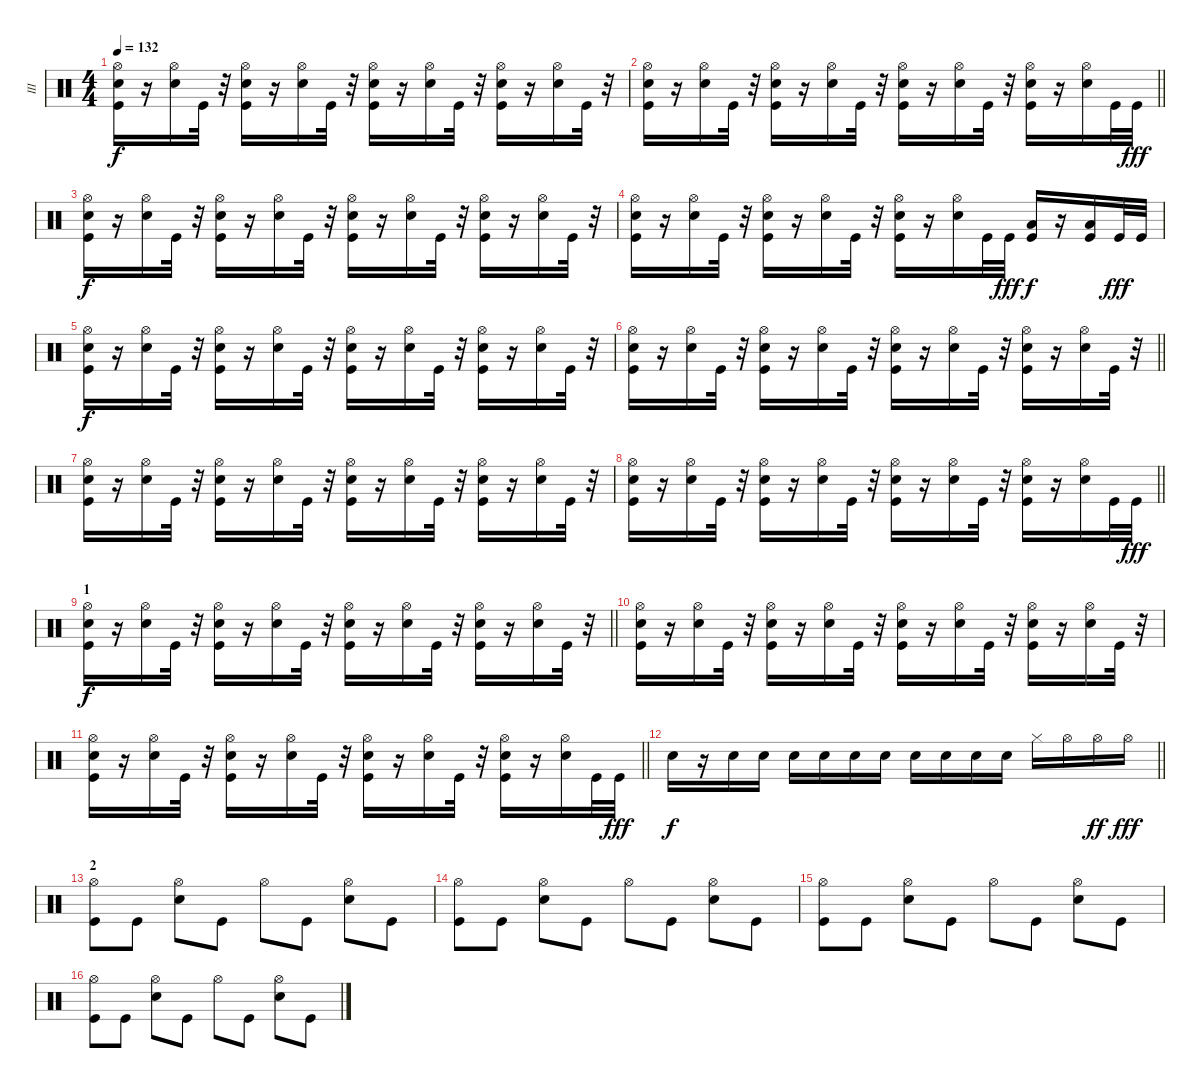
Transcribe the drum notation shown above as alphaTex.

\track ("III" "III") {instrument percussion}
\staff {score}
\articulation defaults
\ts (4 4)
\tempo 132
\clef neutral
\ks c
("Hi-Hat (open)" "Kick (hit)" "Snare (hit) 2").16{dy f} r.16 ("Hi-Hat (open)" "Snare (hit) 2").16 "Kick (hit)".32 r.32 ("Hi-Hat (open)" "Kick (hit)" "Snare (hit) 2").16 r.16 ("Hi-Hat (open)" "Snare (hit) 2").16 "Kick (hit)".32 r.32 ("Hi-Hat (open)" "Kick (hit)" "Snare (hit) 2").16 r.16 ("Hi-Hat (open)" "Snare (hit) 2").16 "Kick (hit)".32 r.32 ("Hi-Hat (open)" "Kick (hit)" "Snare (hit) 2").16 r.16 ("Hi-Hat (open)" "Snare (hit) 2").16 "Kick (hit)".32 r.32 |
\barLineRight lightlight
("Hi-Hat (open)" "Kick (hit)" "Snare (hit) 2").16 r.16 ("Hi-Hat (open)" "Snare (hit) 2").16 "Kick (hit)".32 r.32 ("Hi-Hat (open)" "Kick (hit)" "Snare (hit) 2").16 r.16 ("Hi-Hat (open)" "Snare (hit) 2").16 "Kick (hit)".32 r.32 ("Hi-Hat (open)" "Kick (hit)" "Snare (hit) 2").16 r.16 ("Hi-Hat (open)" "Snare (hit) 2").16 "Kick (hit)".32 r.32 ("Hi-Hat (open)" "Kick (hit)" "Snare (hit) 2").16 r.16 ("Hi-Hat (open)" "Snare (hit) 2").16 "Kick (hit)".32 "Kick (hit)".32{dy fff} |
("Hi-Hat (open)" "Kick (hit)" "Snare (hit) 2").16{dy f} r.16 ("Hi-Hat (open)" "Snare (hit) 2").16 "Kick (hit)".32 r.32 ("Hi-Hat (open)" "Kick (hit)" "Snare (hit) 2").16 r.16 ("Hi-Hat (open)" "Snare (hit) 2").16 "Kick (hit)".32 r.32 ("Hi-Hat (open)" "Kick (hit)" "Snare (hit) 2").16 r.16 ("Hi-Hat (open)" "Snare (hit) 2").16 "Kick (hit)".32 r.32 ("Hi-Hat (open)" "Kick (hit)" "Snare (hit) 2").16 r.16 ("Hi-Hat (open)" "Snare (hit) 2").16 "Kick (hit)".32 r.32 |
("Hi-Hat (open)" "Kick (hit)" "Snare (hit) 2").16 r.16 ("Hi-Hat (open)" "Snare (hit) 2").16 "Kick (hit)".32 r.32 ("Hi-Hat (open)" "Kick (hit)" "Snare (hit) 2").16 r.16 ("Hi-Hat (open)" "Snare (hit) 2").16 "Kick (hit)".32 r.32 ("Hi-Hat (open)" "Kick (hit)" "Snare (hit) 2").16 r.16 ("Hi-Hat (open)" "Snare (hit) 2").16 "Kick (hit)".32 "Kick (hit)".32{dy fff} ("Kick (hit)" "Low Tom (hit)").16{dy f} r.16 ("Kick (hit)" "Low Tom (hit)").16 "Kick (hit)".32{dy fff} "Kick (hit)".32 |
("Hi-Hat (open)" "Kick (hit)" "Snare (hit) 2").16{dy f} r.16 ("Hi-Hat (open)" "Snare (hit) 2").16 "Kick (hit)".32 r.32 ("Hi-Hat (open)" "Kick (hit)" "Snare (hit) 2").16 r.16 ("Hi-Hat (open)" "Snare (hit) 2").16 "Kick (hit)".32 r.32 ("Hi-Hat (open)" "Kick (hit)" "Snare (hit) 2").16 r.16 ("Hi-Hat (open)" "Snare (hit) 2").16 "Kick (hit)".32 r.32 ("Hi-Hat (open)" "Kick (hit)" "Snare (hit) 2").16 r.16 ("Hi-Hat (open)" "Snare (hit) 2").16 "Kick (hit)".32 r.32 |
\barLineRight lightlight
("Hi-Hat (open)" "Kick (hit)" "Snare (hit) 2").16 r.16 ("Hi-Hat (open)" "Snare (hit) 2").16 "Kick (hit)".32 r.32 ("Hi-Hat (open)" "Kick (hit)" "Snare (hit) 2").16 r.16 ("Hi-Hat (open)" "Snare (hit) 2").16 "Kick (hit)".32 r.32 ("Hi-Hat (open)" "Kick (hit)" "Snare (hit) 2").16 r.16 ("Hi-Hat (open)" "Snare (hit) 2").16 "Kick (hit)".32 r.32 ("Hi-Hat (open)" "Kick (hit)" "Snare (hit) 2").16 r.16 ("Hi-Hat (open)" "Snare (hit) 2").16 "Kick (hit)".32 r.32 |
("Hi-Hat (open)" "Kick (hit)" "Snare (hit) 2").16 r.16 ("Hi-Hat (open)" "Snare (hit) 2").16 "Kick (hit)".32 r.32 ("Hi-Hat (open)" "Kick (hit)" "Snare (hit) 2").16 r.16 ("Hi-Hat (open)" "Snare (hit) 2").16 "Kick (hit)".32 r.32 ("Hi-Hat (open)" "Kick (hit)" "Snare (hit) 2").16 r.16 ("Hi-Hat (open)" "Snare (hit) 2").16 "Kick (hit)".32 r.32 ("Hi-Hat (open)" "Kick (hit)" "Snare (hit) 2").16 r.16 ("Hi-Hat (open)" "Snare (hit) 2").16 "Kick (hit)".32 r.32 |
\barLineRight lightlight
("Hi-Hat (open)" "Kick (hit)" "Snare (hit) 2").16 r.16 ("Hi-Hat (open)" "Snare (hit) 2").16 "Kick (hit)".32 r.32 ("Hi-Hat (open)" "Kick (hit)" "Snare (hit) 2").16 r.16 ("Hi-Hat (open)" "Snare (hit) 2").16 "Kick (hit)".32 r.32 ("Hi-Hat (open)" "Kick (hit)" "Snare (hit) 2").16 r.16 ("Hi-Hat (open)" "Snare (hit) 2").16 "Kick (hit)".32 r.32 ("Hi-Hat (open)" "Kick (hit)" "Snare (hit) 2").16 r.16 ("Hi-Hat (open)" "Snare (hit) 2").16 "Kick (hit)".32 "Kick (hit)".32{dy fff} |
\section ("" "1")
\barLineRight lightlight
("Hi-Hat (open)" "Kick (hit)" "Snare (hit) 2").16{dy f} r.16 ("Hi-Hat (open)" "Snare (hit) 2").16 "Kick (hit)".32 r.32 ("Hi-Hat (open)" "Kick (hit)" "Snare (hit) 2").16 r.16 ("Hi-Hat (open)" "Snare (hit) 2").16 "Kick (hit)".32 r.32 ("Hi-Hat (open)" "Kick (hit)" "Snare (hit) 2").16 r.16 ("Hi-Hat (open)" "Snare (hit) 2").16 "Kick (hit)".32 r.32 ("Hi-Hat (open)" "Kick (hit)" "Snare (hit) 2").16 r.16 ("Hi-Hat (open)" "Snare (hit) 2").16 "Kick (hit)".32 r.32 |
("Hi-Hat (open)" "Kick (hit)" "Snare (hit) 2").16 r.16 ("Hi-Hat (open)" "Snare (hit) 2").16 "Kick (hit)".32 r.32 ("Hi-Hat (open)" "Kick (hit)" "Snare (hit) 2").16 r.16 ("Hi-Hat (open)" "Snare (hit) 2").16 "Kick (hit)".32 r.32 ("Hi-Hat (open)" "Kick (hit)" "Snare (hit) 2").16 r.16 ("Hi-Hat (open)" "Snare (hit) 2").16 "Kick (hit)".32 r.32 ("Hi-Hat (open)" "Kick (hit)" "Snare (hit) 2").16 r.16 ("Hi-Hat (open)" "Snare (hit) 2").16 "Kick (hit)".32 r.32 |
\barLineRight lightlight
("Hi-Hat (open)" "Kick (hit)" "Snare (hit) 2").16 r.16 ("Hi-Hat (open)" "Snare (hit) 2").16 "Kick (hit)".32 r.32 ("Hi-Hat (open)" "Kick (hit)" "Snare (hit) 2").16 r.16 ("Hi-Hat (open)" "Snare (hit) 2").16 "Kick (hit)".32 r.32 ("Hi-Hat (open)" "Kick (hit)" "Snare (hit) 2").16 r.16 ("Hi-Hat (open)" "Snare (hit) 2").16 "Kick (hit)".32 r.32 ("Hi-Hat (open)" "Kick (hit)" "Snare (hit) 2").16 r.16 ("Hi-Hat (open)" "Snare (hit) 2").16 "Kick (hit)".32 "Kick (hit)".32{dy fff} |
\barLineRight lightlight "Snare (hit) 2".16{dy f}
r.16 "Snare (hit) 2".16 "Snare (hit) 2".16 "Snare (hit) 2".16 "Snare (hit) 2".16 "Snare (hit) 2".16 "Snare (hit) 2".16 "Snare (hit) 2".16 "Snare (hit) 2".16 "Snare (hit) 2".16 "Snare (hit) 2".16 "Hi-Hat (closed)".16 "Hi-Hat (open)".16 "Hi-Hat (open)".16{dy ff} "Hi-Hat (open)".16{dy fff} |
\section ("" "2")
("Kick (hit)" "Hi-Hat (open)").8 "Kick (hit)".8 ("Snare (hit) 2" "Hi-Hat (open)").8 "Kick (hit)".8 "Hi-Hat (open)".8 "Kick (hit)".8 ("Snare (hit) 2" "Hi-Hat (open)").8 "Kick (hit)".8 |
("Kick (hit)" "Hi-Hat (open)").8 "Kick (hit)".8 ("Snare (hit) 2" "Hi-Hat (open)").8 "Kick (hit)".8 "Hi-Hat (open)".8 "Kick (hit)".8 ("Snare (hit) 2" "Hi-Hat (open)").8 "Kick (hit)".8 |
("Kick (hit)" "Hi-Hat (open)").8 "Kick (hit)".8 ("Snare (hit) 2" "Hi-Hat (open)").8 "Kick (hit)".8 "Hi-Hat (open)".8 "Kick (hit)".8 ("Snare (hit) 2" "Hi-Hat (open)").8 "Kick (hit)".8 |
("Kick (hit)" "Hi-Hat (open)").8 "Kick (hit)".8 ("Snare (hit) 2" "Hi-Hat (open)").8 "Kick (hit)".8 "Hi-Hat (open)".8 "Kick (hit)".8 ("Snare (hit) 2" "Hi-Hat (open)").8 "Kick (hit)".8
